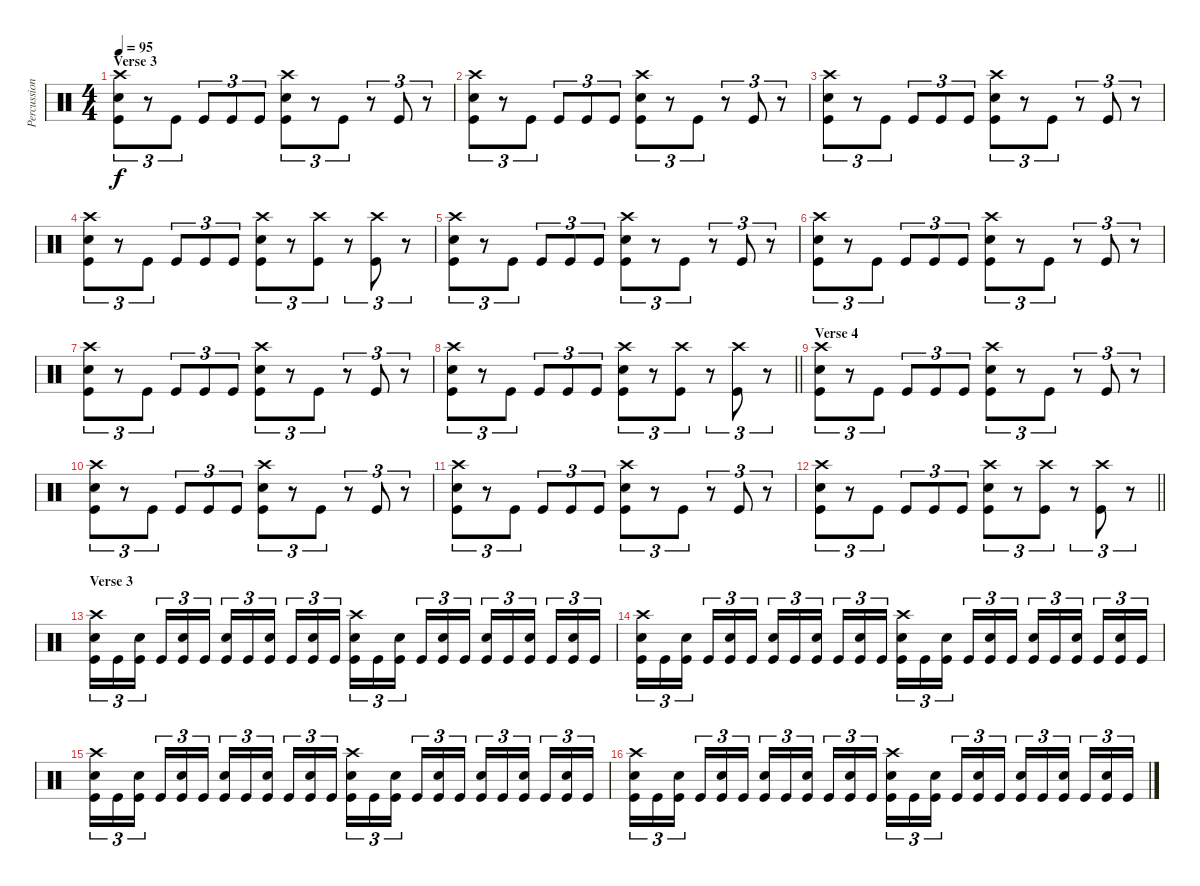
\track ("Percussion" "Percussion") {instrument percussion}
\staff {score}
\articulation defaults
\ts (4 4)
\section ("" "Verse 3")
\tempo 95
\clef neutral
\ks c
("Crash high (hit)" "Snare (hit) 2" "Kick (hit)").8{tu (3 2) dy f} r.8{tu (3 2)} "Kick (hit)".8{tu (3 2)} "Kick (hit)".8{tu (3 2)} "Kick (hit)".8{tu (3 2)} "Kick (hit)".8{tu (3 2)} ("Crash high (hit)" "Snare (hit) 2" "Kick (hit)").8{tu (3 2)} r.8{tu (3 2)} "Kick (hit)".8{tu (3 2)} r.8{tu (3 2)} "Kick (hit)".8{tu (3 2)} r.8{tu (3 2)} |
("Crash high (hit)" "Snare (hit) 2" "Kick (hit)").8{tu (3 2)} r.8{tu (3 2)} "Kick (hit)".8{tu (3 2)} "Kick (hit)".8{tu (3 2)} "Kick (hit)".8{tu (3 2)} "Kick (hit)".8{tu (3 2)} ("Crash high (hit)" "Snare (hit) 2" "Kick (hit)").8{tu (3 2)} r.8{tu (3 2)} "Kick (hit)".8{tu (3 2)} r.8{tu (3 2)} "Kick (hit)".8{tu (3 2)} r.8{tu (3 2)} |
("Crash high (hit)" "Snare (hit) 2" "Kick (hit)").8{tu (3 2)} r.8{tu (3 2)} "Kick (hit)".8{tu (3 2)} "Kick (hit)".8{tu (3 2)} "Kick (hit)".8{tu (3 2)} "Kick (hit)".8{tu (3 2)} ("Crash high (hit)" "Snare (hit) 2" "Kick (hit)").8{tu (3 2)} r.8{tu (3 2)} "Kick (hit)".8{tu (3 2)} r.8{tu (3 2)} "Kick (hit)".8{tu (3 2)} r.8{tu (3 2)} |
("Crash high (hit)" "Snare (hit) 2" "Kick (hit)").8{tu (3 2)} r.8{tu (3 2)} "Kick (hit)".8{tu (3 2)} "Kick (hit)".8{tu (3 2)} "Kick (hit)".8{tu (3 2)} "Kick (hit)".8{tu (3 2)} ("Crash high (hit)" "Snare (hit) 2" "Kick (hit)").8{tu (3 2)} r.8{tu (3 2)} ("Crash high (hit)" "Kick (hit)").8{tu (3 2)} r.8{tu (3 2)} ("Crash high (hit)" "Kick (hit)").8{tu (3 2)} r.8{tu (3 2)} |
("Crash high (hit)" "Snare (hit) 2" "Kick (hit)").8{tu (3 2)} r.8{tu (3 2)} "Kick (hit)".8{tu (3 2)} "Kick (hit)".8{tu (3 2)} "Kick (hit)".8{tu (3 2)} "Kick (hit)".8{tu (3 2)} ("Crash high (hit)" "Snare (hit) 2" "Kick (hit)").8{tu (3 2)} r.8{tu (3 2)} "Kick (hit)".8{tu (3 2)} r.8{tu (3 2)} "Kick (hit)".8{tu (3 2)} r.8{tu (3 2)} |
("Crash high (hit)" "Snare (hit) 2" "Kick (hit)").8{tu (3 2)} r.8{tu (3 2)} "Kick (hit)".8{tu (3 2)} "Kick (hit)".8{tu (3 2)} "Kick (hit)".8{tu (3 2)} "Kick (hit)".8{tu (3 2)} ("Crash high (hit)" "Snare (hit) 2" "Kick (hit)").8{tu (3 2)} r.8{tu (3 2)} "Kick (hit)".8{tu (3 2)} r.8{tu (3 2)} "Kick (hit)".8{tu (3 2)} r.8{tu (3 2)} |
("Crash high (hit)" "Snare (hit) 2" "Kick (hit)").8{tu (3 2)} r.8{tu (3 2)} "Kick (hit)".8{tu (3 2)} "Kick (hit)".8{tu (3 2)} "Kick (hit)".8{tu (3 2)} "Kick (hit)".8{tu (3 2)} ("Crash high (hit)" "Snare (hit) 2" "Kick (hit)").8{tu (3 2)} r.8{tu (3 2)} "Kick (hit)".8{tu (3 2)} r.8{tu (3 2)} "Kick (hit)".8{tu (3 2)} r.8{tu (3 2)} |
\barLineRight lightlight
("Crash high (hit)" "Snare (hit) 2" "Kick (hit)").8{tu (3 2)} r.8{tu (3 2)} "Kick (hit)".8{tu (3 2)} "Kick (hit)".8{tu (3 2)} "Kick (hit)".8{tu (3 2)} "Kick (hit)".8{tu (3 2)} ("Crash high (hit)" "Snare (hit) 2" "Kick (hit)").8{tu (3 2)} r.8{tu (3 2)} ("Crash high (hit)" "Kick (hit)").8{tu (3 2)} r.8{tu (3 2)} ("Crash high (hit)" "Kick (hit)").8{tu (3 2)} r.8{tu (3 2)} |
\section ("" "Verse 4")
("Crash high (hit)" "Snare (hit) 2" "Kick (hit)").8{tu (3 2)} r.8{tu (3 2)} "Kick (hit)".8{tu (3 2)} "Kick (hit)".8{tu (3 2)} "Kick (hit)".8{tu (3 2)} "Kick (hit)".8{tu (3 2)} ("Crash high (hit)" "Snare (hit) 2" "Kick (hit)").8{tu (3 2)} r.8{tu (3 2)} "Kick (hit)".8{tu (3 2)} r.8{tu (3 2)} "Kick (hit)".8{tu (3 2)} r.8{tu (3 2)} |
("Crash high (hit)" "Snare (hit) 2" "Kick (hit)").8{tu (3 2)} r.8{tu (3 2)} "Kick (hit)".8{tu (3 2)} "Kick (hit)".8{tu (3 2)} "Kick (hit)".8{tu (3 2)} "Kick (hit)".8{tu (3 2)} ("Crash high (hit)" "Snare (hit) 2" "Kick (hit)").8{tu (3 2)} r.8{tu (3 2)} "Kick (hit)".8{tu (3 2)} r.8{tu (3 2)} "Kick (hit)".8{tu (3 2)} r.8{tu (3 2)} |
("Crash high (hit)" "Snare (hit) 2" "Kick (hit)").8{tu (3 2)} r.8{tu (3 2)} "Kick (hit)".8{tu (3 2)} "Kick (hit)".8{tu (3 2)} "Kick (hit)".8{tu (3 2)} "Kick (hit)".8{tu (3 2)} ("Crash high (hit)" "Snare (hit) 2" "Kick (hit)").8{tu (3 2)} r.8{tu (3 2)} "Kick (hit)".8{tu (3 2)} r.8{tu (3 2)} "Kick (hit)".8{tu (3 2)} r.8{tu (3 2)} |
\barLineRight lightlight
("Crash high (hit)" "Snare (hit) 2" "Kick (hit)").8{tu (3 2)} r.8{tu (3 2)} "Kick (hit)".8{tu (3 2)} "Kick (hit)".8{tu (3 2)} "Kick (hit)".8{tu (3 2)} "Kick (hit)".8{tu (3 2)} ("Crash high (hit)" "Snare (hit) 2" "Kick (hit)").8{tu (3 2)} r.8{tu (3 2)} ("Crash high (hit)" "Kick (hit)").8{tu (3 2)} r.8{tu (3 2)} ("Crash high (hit)" "Kick (hit)").8{tu (3 2)} r.8{tu (3 2)} |
\section ("" "Verse 3")
("Crash high (hit)" "Snare (hit) 2" "Kick (hit)").16{tu (3 2)} "Kick (hit)".16{tu (3 2)} ("Snare (hit) 2" "Kick (hit)").16{tu (3 2) beam splitsecondary} "Kick (hit)".16{tu (3 2)} ("Snare (hit) 2" "Kick (hit)").16{tu (3 2)} "Kick (hit)".16{tu (3 2)} ("Snare (hit) 2" "Kick (hit)").16{tu (3 2)} "Kick (hit)".16{tu (3 2)} ("Snare (hit) 2" "Kick (hit)").16{tu (3 2) beam splitsecondary} "Kick (hit)".16{tu (3 2)} ("Snare (hit) 2" "Kick (hit)").16{tu (3 2)} "Kick (hit)".16{tu (3 2)} ("Crash high (hit)" "Snare (hit) 2" "Kick (hit)").16{tu (3 2)} "Kick (hit)".16{tu (3 2)} ("Snare (hit) 2" "Kick (hit)").16{tu (3 2) beam splitsecondary} "Kick (hit)".16{tu (3 2)} ("Snare (hit) 2" "Kick (hit)").16{tu (3 2)} "Kick (hit)".16{tu (3 2)} ("Snare (hit) 2" "Kick (hit)").16{tu (3 2)} "Kick (hit)".16{tu (3 2)} ("Snare (hit) 2" "Kick (hit)").16{tu (3 2) beam splitsecondary} "Kick (hit)".16{tu (3 2)} ("Snare (hit) 2" "Kick (hit)").16{tu (3 2)} "Kick (hit)".16{tu (3 2)} |
("Crash high (hit)" "Snare (hit) 2" "Kick (hit)").16{tu (3 2)} "Kick (hit)".16{tu (3 2)} ("Snare (hit) 2" "Kick (hit)").16{tu (3 2) beam splitsecondary} "Kick (hit)".16{tu (3 2)} ("Snare (hit) 2" "Kick (hit)").16{tu (3 2)} "Kick (hit)".16{tu (3 2)} ("Snare (hit) 2" "Kick (hit)").16{tu (3 2)} "Kick (hit)".16{tu (3 2)} ("Snare (hit) 2" "Kick (hit)").16{tu (3 2) beam splitsecondary} "Kick (hit)".16{tu (3 2)} ("Snare (hit) 2" "Kick (hit)").16{tu (3 2)} "Kick (hit)".16{tu (3 2)} ("Crash high (hit)" "Snare (hit) 2" "Kick (hit)").16{tu (3 2)} "Kick (hit)".16{tu (3 2)} ("Snare (hit) 2" "Kick (hit)").16{tu (3 2) beam splitsecondary} "Kick (hit)".16{tu (3 2)} ("Snare (hit) 2" "Kick (hit)").16{tu (3 2)} "Kick (hit)".16{tu (3 2)} ("Snare (hit) 2" "Kick (hit)").16{tu (3 2)} "Kick (hit)".16{tu (3 2)} ("Snare (hit) 2" "Kick (hit)").16{tu (3 2) beam splitsecondary} "Kick (hit)".16{tu (3 2)} ("Snare (hit) 2" "Kick (hit)").16{tu (3 2)} "Kick (hit)".16{tu (3 2)} |
("Crash high (hit)" "Snare (hit) 2" "Kick (hit)").16{tu (3 2)} "Kick (hit)".16{tu (3 2)} ("Snare (hit) 2" "Kick (hit)").16{tu (3 2) beam splitsecondary} "Kick (hit)".16{tu (3 2)} ("Snare (hit) 2" "Kick (hit)").16{tu (3 2)} "Kick (hit)".16{tu (3 2)} ("Snare (hit) 2" "Kick (hit)").16{tu (3 2)} "Kick (hit)".16{tu (3 2)} ("Snare (hit) 2" "Kick (hit)").16{tu (3 2) beam splitsecondary} "Kick (hit)".16{tu (3 2)} ("Snare (hit) 2" "Kick (hit)").16{tu (3 2)} "Kick (hit)".16{tu (3 2)} ("Crash high (hit)" "Snare (hit) 2" "Kick (hit)").16{tu (3 2)} "Kick (hit)".16{tu (3 2)} ("Snare (hit) 2" "Kick (hit)").16{tu (3 2) beam splitsecondary} "Kick (hit)".16{tu (3 2)} ("Snare (hit) 2" "Kick (hit)").16{tu (3 2)} "Kick (hit)".16{tu (3 2)} ("Snare (hit) 2" "Kick (hit)").16{tu (3 2)} "Kick (hit)".16{tu (3 2)} ("Snare (hit) 2" "Kick (hit)").16{tu (3 2) beam splitsecondary} "Kick (hit)".16{tu (3 2)} ("Snare (hit) 2" "Kick (hit)").16{tu (3 2)} "Kick (hit)".16{tu (3 2)} |
("Crash high (hit)" "Snare (hit) 2" "Kick (hit)").16{tu (3 2)} "Kick (hit)".16{tu (3 2)} ("Snare (hit) 2" "Kick (hit)").16{tu (3 2) beam splitsecondary} "Kick (hit)".16{tu (3 2)} ("Snare (hit) 2" "Kick (hit)").16{tu (3 2)} "Kick (hit)".16{tu (3 2)} ("Snare (hit) 2" "Kick (hit)").16{tu (3 2)} "Kick (hit)".16{tu (3 2)} ("Snare (hit) 2" "Kick (hit)").16{tu (3 2) beam splitsecondary} "Kick (hit)".16{tu (3 2)} ("Snare (hit) 2" "Kick (hit)").16{tu (3 2)} "Kick (hit)".16{tu (3 2)} ("Crash high (hit)" "Snare (hit) 2" "Kick (hit)").16{tu (3 2)} "Kick (hit)".16{tu (3 2)} ("Snare (hit) 2" "Kick (hit)").16{tu (3 2) beam splitsecondary} "Kick (hit)".16{tu (3 2)} ("Snare (hit) 2" "Kick (hit)").16{tu (3 2)} "Kick (hit)".16{tu (3 2)} ("Snare (hit) 2" "Kick (hit)").16{tu (3 2)} "Kick (hit)".16{tu (3 2)} ("Snare (hit) 2" "Kick (hit)").16{tu (3 2) beam splitsecondary} "Kick (hit)".16{tu (3 2)} ("Snare (hit) 2" "Kick (hit)").16{tu (3 2)} "Kick (hit)".16{tu (3 2)}
